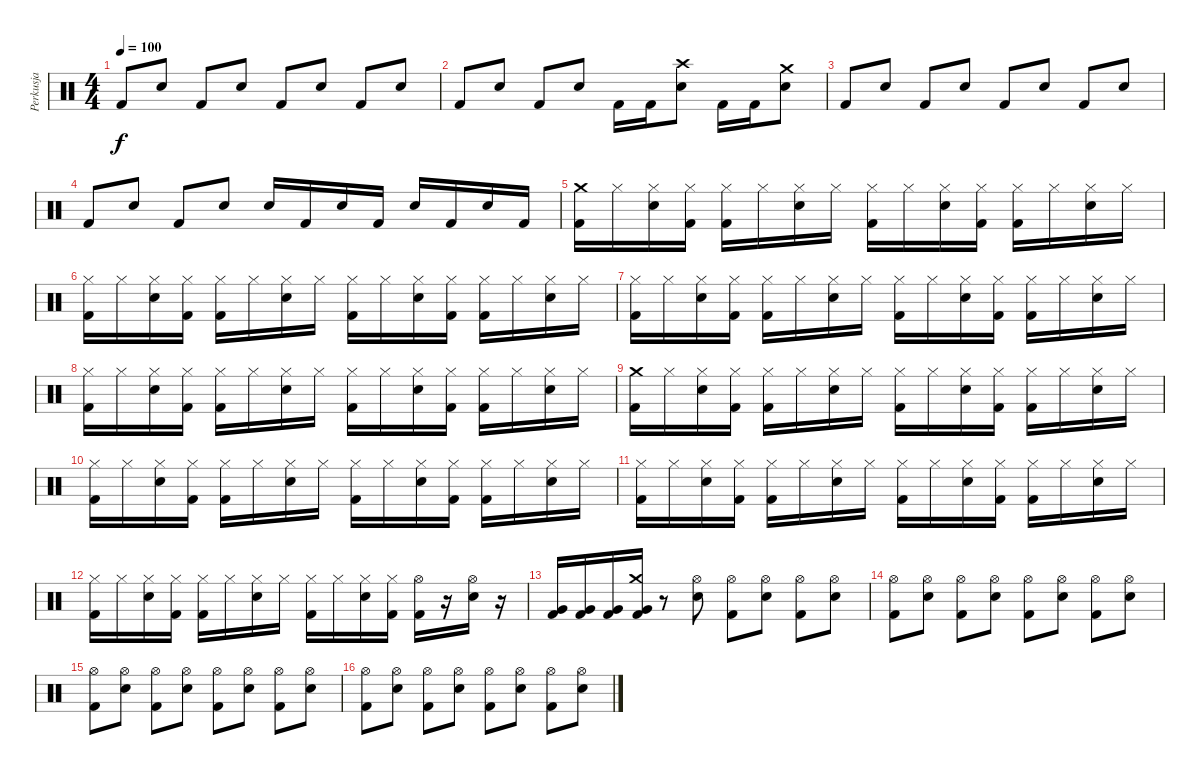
\track ("Perkusja" "Perkusja") {instrument percussion}
\staff {score}
\articulation defaults
\ts (4 4)
\tempo 100
\clef neutral
\ks c "Kick (hit) 2".8{dy f} "Electric Snare (hit)".8 "Kick (hit) 2".8 "Electric Snare (hit)".8 "Kick (hit) 2".8 "Electric Snare (hit)".8 "Kick (hit) 2".8 "Electric Snare (hit)".8
|
"Kick (hit) 2".8 "Electric Snare (hit)".8 "Kick (hit) 2".8 "Electric Snare (hit)".8 "Kick (hit) 2".16 "Kick (hit) 2".16 ("Crash high (hit)" "Electric Snare (hit)").8 "Kick (hit) 2".16 "Kick (hit) 2".16 ("Crash medium (hit)" "Electric Snare (hit)").8 |
"Kick (hit) 2".8 "Electric Snare (hit)".8 "Kick (hit) 2".8 "Electric Snare (hit)".8 "Kick (hit) 2".8 "Electric Snare (hit)".8 "Kick (hit) 2".8 "Electric Snare (hit)".8 |
"Kick (hit) 2".8 "Electric Snare (hit)".8 "Kick (hit) 2".8 "Electric Snare (hit)".8 "Electric Snare (hit)".16 "Kick (hit) 2".16 "Electric Snare (hit)".16 "Kick (hit) 2".16 "Electric Snare (hit)".16 "Kick (hit) 2".16 "Electric Snare (hit)".16 "Kick (hit) 2".16 |
("Crash medium (hit)" "Kick (hit) 2").16 "Hi-Hat (closed)".16 ("Hi-Hat (closed)" "Electric Snare (hit)").16 ("Hi-Hat (closed)" "Kick (hit) 2").16 ("Hi-Hat (closed)" "Kick (hit) 2").16 "Hi-Hat (closed)".16 ("Hi-Hat (closed)" "Electric Snare (hit)").16 "Hi-Hat (closed)".16 ("Hi-Hat (closed)" "Kick (hit) 2").16 "Hi-Hat (closed)".16 ("Hi-Hat (closed)" "Electric Snare (hit)").16 ("Hi-Hat (closed)" "Kick (hit) 2").16 ("Hi-Hat (closed)" "Kick (hit) 2").16 "Hi-Hat (closed)".16 ("Hi-Hat (closed)" "Electric Snare (hit)").16 "Hi-Hat (closed)".16 |
("Hi-Hat (closed)" "Kick (hit) 2").16 "Hi-Hat (closed)".16 ("Hi-Hat (closed)" "Electric Snare (hit)").16 ("Hi-Hat (closed)" "Kick (hit) 2").16 ("Hi-Hat (closed)" "Kick (hit) 2").16 "Hi-Hat (closed)".16 ("Hi-Hat (closed)" "Electric Snare (hit)").16 "Hi-Hat (closed)".16 ("Hi-Hat (closed)" "Kick (hit) 2").16 "Hi-Hat (closed)".16 ("Hi-Hat (closed)" "Electric Snare (hit)").16 ("Hi-Hat (closed)" "Kick (hit) 2").16 ("Hi-Hat (closed)" "Kick (hit) 2").16 "Hi-Hat (closed)".16 ("Hi-Hat (closed)" "Electric Snare (hit)").16 "Hi-Hat (closed)".16 |
("Hi-Hat (closed)" "Kick (hit) 2").16 "Hi-Hat (closed)".16 ("Hi-Hat (closed)" "Electric Snare (hit)").16 ("Hi-Hat (closed)" "Kick (hit) 2").16 ("Hi-Hat (closed)" "Kick (hit) 2").16 "Hi-Hat (closed)".16 ("Hi-Hat (closed)" "Electric Snare (hit)").16 "Hi-Hat (closed)".16 ("Hi-Hat (closed)" "Kick (hit) 2").16 "Hi-Hat (closed)".16 ("Hi-Hat (closed)" "Electric Snare (hit)").16 ("Hi-Hat (closed)" "Kick (hit) 2").16 ("Hi-Hat (closed)" "Kick (hit) 2").16 "Hi-Hat (closed)".16 ("Hi-Hat (closed)" "Electric Snare (hit)").16 "Hi-Hat (closed)".16 |
("Hi-Hat (closed)" "Kick (hit) 2").16 "Hi-Hat (closed)".16 ("Hi-Hat (closed)" "Electric Snare (hit)").16 ("Hi-Hat (closed)" "Kick (hit) 2").16 ("Hi-Hat (closed)" "Kick (hit) 2").16 "Hi-Hat (closed)".16 ("Hi-Hat (closed)" "Electric Snare (hit)").16 "Hi-Hat (closed)".16 ("Hi-Hat (closed)" "Kick (hit) 2").16 "Hi-Hat (closed)".16 ("Hi-Hat (closed)" "Electric Snare (hit)").16 ("Hi-Hat (closed)" "Kick (hit) 2").16 ("Hi-Hat (closed)" "Kick (hit) 2").16 "Hi-Hat (closed)".16 ("Hi-Hat (closed)" "Electric Snare (hit)").16 "Hi-Hat (closed)".16 |
("Crash medium (hit)" "Kick (hit) 2").16 "Hi-Hat (closed)".16 ("Hi-Hat (closed)" "Electric Snare (hit)").16 ("Hi-Hat (closed)" "Kick (hit) 2").16 ("Hi-Hat (closed)" "Kick (hit) 2").16 "Hi-Hat (closed)".16 ("Hi-Hat (closed)" "Electric Snare (hit)").16 "Hi-Hat (closed)".16 ("Hi-Hat (closed)" "Kick (hit) 2").16 "Hi-Hat (closed)".16 ("Hi-Hat (closed)" "Electric Snare (hit)").16 ("Hi-Hat (closed)" "Kick (hit) 2").16 ("Hi-Hat (closed)" "Kick (hit) 2").16 "Hi-Hat (closed)".16 ("Hi-Hat (closed)" "Electric Snare (hit)").16 "Hi-Hat (closed)".16 |
("Hi-Hat (closed)" "Kick (hit) 2").16 "Hi-Hat (closed)".16 ("Hi-Hat (closed)" "Electric Snare (hit)").16 ("Hi-Hat (closed)" "Kick (hit) 2").16 ("Hi-Hat (closed)" "Kick (hit) 2").16 "Hi-Hat (closed)".16 ("Hi-Hat (closed)" "Electric Snare (hit)").16 "Hi-Hat (closed)".16 ("Hi-Hat (closed)" "Kick (hit) 2").16 "Hi-Hat (closed)".16 ("Hi-Hat (closed)" "Electric Snare (hit)").16 ("Hi-Hat (closed)" "Kick (hit) 2").16 ("Hi-Hat (closed)" "Kick (hit) 2").16 "Hi-Hat (closed)".16 ("Hi-Hat (closed)" "Electric Snare (hit)").16 "Hi-Hat (closed)".16 |
("Hi-Hat (closed)" "Kick (hit) 2").16 "Hi-Hat (closed)".16 ("Hi-Hat (closed)" "Electric Snare (hit)").16 ("Hi-Hat (closed)" "Kick (hit) 2").16 ("Hi-Hat (closed)" "Kick (hit) 2").16 "Hi-Hat (closed)".16 ("Hi-Hat (closed)" "Electric Snare (hit)").16 "Hi-Hat (closed)".16 ("Hi-Hat (closed)" "Kick (hit) 2").16 "Hi-Hat (closed)".16 ("Hi-Hat (closed)" "Electric Snare (hit)").16 ("Hi-Hat (closed)" "Kick (hit) 2").16 ("Hi-Hat (closed)" "Kick (hit) 2").16 "Hi-Hat (closed)".16 ("Hi-Hat (closed)" "Electric Snare (hit)").16 "Hi-Hat (closed)".16 |
("Hi-Hat (closed)" "Kick (hit) 2").16 "Hi-Hat (closed)".16 ("Hi-Hat (closed)" "Electric Snare (hit)").16 ("Hi-Hat (closed)" "Kick (hit) 2").16 ("Hi-Hat (closed)" "Kick (hit) 2").16 "Hi-Hat (closed)".16 ("Hi-Hat (closed)" "Electric Snare (hit)").16 "Hi-Hat (closed)".16 ("Hi-Hat (closed)" "Kick (hit) 2").16 "Hi-Hat (closed)".16 ("Hi-Hat (closed)" "Electric Snare (hit)").16 ("Hi-Hat (closed)" "Kick (hit) 2").16 ("Hi-Hat (open)" "Kick (hit) 2").16 r.16 ("Hi-Hat (open)" "Electric Snare (hit)").16 r.16 |
("Kick (hit) 2" "Very Low Tom (hit)").16 ("Kick (hit) 2" "Very Low Tom (hit)").16 ("Kick (hit) 2" "Very Low Tom (hit)").16 ("Crash medium (hit)" "Kick (hit) 2" "Very Low Tom (hit)").16 r.8 ("Hi-Hat (open)" "Electric Snare (hit)").8 ("Hi-Hat (open)" "Kick (hit) 2").8 ("Hi-Hat (open)" "Electric Snare (hit)").8 ("Hi-Hat (open)" "Kick (hit) 2").8 ("Hi-Hat (open)" "Electric Snare (hit)").8 |
("Hi-Hat (open)" "Kick (hit) 2").8 ("Hi-Hat (open)" "Electric Snare (hit)").8 ("Hi-Hat (open)" "Kick (hit) 2").8 ("Hi-Hat (open)" "Electric Snare (hit)").8 ("Hi-Hat (open)" "Kick (hit) 2").8 ("Hi-Hat (open)" "Electric Snare (hit)").8 ("Hi-Hat (open)" "Kick (hit) 2").8 ("Hi-Hat (open)" "Electric Snare (hit)").8 |
("Hi-Hat (open)" "Kick (hit) 2").8 ("Hi-Hat (open)" "Electric Snare (hit)").8 ("Hi-Hat (open)" "Kick (hit) 2").8 ("Hi-Hat (open)" "Electric Snare (hit)").8 ("Hi-Hat (open)" "Kick (hit) 2").8 ("Hi-Hat (open)" "Electric Snare (hit)").8 ("Hi-Hat (open)" "Kick (hit) 2").8 ("Hi-Hat (open)" "Electric Snare (hit)").8 |
("Hi-Hat (open)" "Kick (hit) 2").8 ("Hi-Hat (open)" "Electric Snare (hit)").8 ("Hi-Hat (open)" "Kick (hit) 2").8 ("Hi-Hat (open)" "Electric Snare (hit)").8 ("Hi-Hat (open)" "Kick (hit) 2").8 ("Hi-Hat (open)" "Electric Snare (hit)").8 ("Hi-Hat (open)" "Kick (hit) 2").8 ("Hi-Hat (open)" "Electric Snare (hit)").8
